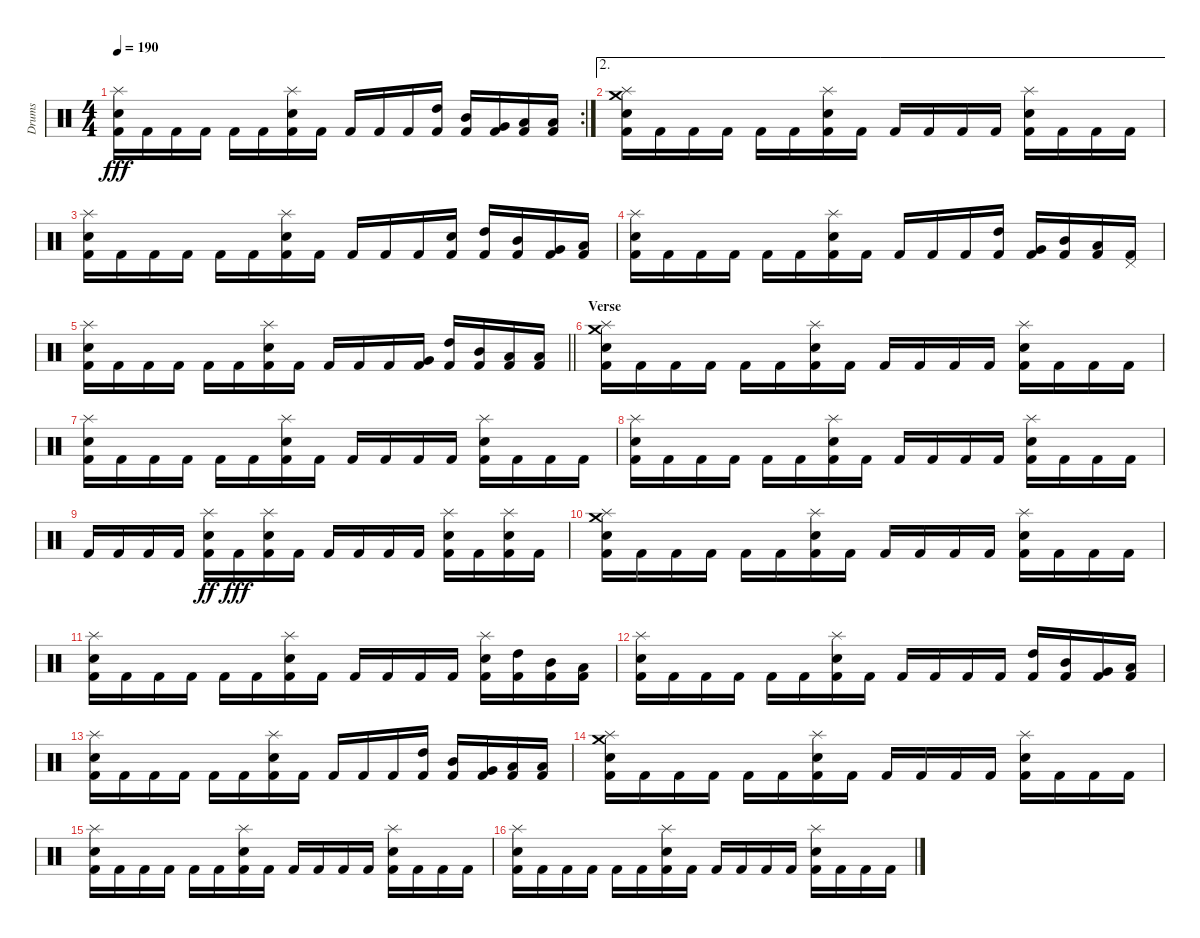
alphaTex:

\track ("Drums" "Drums") {instrument percussion}
\staff {score}
\articulation defaults
\rc 2
\ts (4 4)
\tempo 190
\clef neutral
\ks c
("Splash (hit)" "Electric Snare (hit)" "Kick (hit) 2").16{dy fff} "Kick (hit) 2".16 "Kick (hit) 2".16 "Kick (hit) 2".16 "Kick (hit) 2".16 "Kick (hit) 2".16 ("Splash (hit)" "Electric Snare (hit)" "Kick (hit) 2").16 "Kick (hit) 2".16 "Kick (hit) 2".16 "Kick (hit) 2".16 "Kick (hit) 2".16 ("High Tom (hit)" "Kick (hit) 2").16 ("Mid Tom (hit)" "Kick (hit) 2").16 ("Very Low Tom (hit)" "Kick (hit) 2").16 ("Low Tom (hit)" "Kick (hit) 2").16 ("Low Floor Tom (hit)" "Kick (hit) 2").16 |
\ae 2
("Crash medium (hit)" "Splash (hit)" "Electric Snare (hit)" "Kick (hit) 2").16 "Kick (hit) 2".16 "Kick (hit) 2".16 "Kick (hit) 2".16 "Kick (hit) 2".16 "Kick (hit) 2".16 ("Splash (hit)" "Electric Snare (hit)" "Kick (hit) 2").16 "Kick (hit) 2".16 "Kick (hit) 2".16 "Kick (hit) 2".16 "Kick (hit) 2".16 "Kick (hit) 2".16 ("Splash (hit)" "Electric Snare (hit)" "Kick (hit) 2").16 "Kick (hit) 2".16 "Kick (hit) 2".16 "Kick (hit) 2".16 |
("Splash (hit)" "Electric Snare (hit)" "Kick (hit) 2").16 "Kick (hit) 2".16 "Kick (hit) 2".16 "Kick (hit) 2".16 "Kick (hit) 2".16 "Kick (hit) 2".16 ("Splash (hit)" "Electric Snare (hit)" "Kick (hit) 2").16 "Kick (hit) 2".16 "Kick (hit) 2".16 "Kick (hit) 2".16 "Kick (hit) 2".16 ("Electric Snare (hit)" "Kick (hit) 2").16 ("High Tom (hit)" "Kick (hit) 2").16 ("Mid Tom (hit)" "Kick (hit) 2").16 ("Very Low Tom (hit)" "Kick (hit) 2").16 ("Low Tom (hit)" "Kick (hit) 2").16 |
("Splash (hit)" "Electric Snare (hit)" "Kick (hit) 2").16 "Kick (hit) 2".16 "Kick (hit) 2".16 "Kick (hit) 2".16 "Kick (hit) 2".16 "Kick (hit) 2".16 ("Splash (hit)" "Electric Snare (hit)" "Kick (hit) 2").16 "Kick (hit) 2".16 "Kick (hit) 2".16 "Kick (hit) 2".16 "Kick (hit) 2".16 ("High Tom (hit)" "Kick (hit) 2").16 ("Very Low Tom (hit)" "Kick (hit) 2").16 ("Mid Tom (hit)" "Kick (hit) 2").16 ("Low Tom (hit)" "Kick (hit) 2").16 ("Pedal Hi-Hat (hit)" "Kick (hit) 2").16 |
\barLineRight lightlight
("Splash (hit)" "Electric Snare (hit)" "Kick (hit) 2").16 "Kick (hit) 2".16 "Kick (hit) 2".16 "Kick (hit) 2".16 "Kick (hit) 2".16 "Kick (hit) 2".16 ("Splash (hit)" "Electric Snare (hit)" "Kick (hit) 2").16 "Kick (hit) 2".16 "Kick (hit) 2".16 "Kick (hit) 2".16 "Kick (hit) 2".16 ("Very Low Tom (hit)" "Kick (hit) 2").16 ("High Tom (hit)" "Kick (hit) 2").16 ("Mid Tom (hit)" "Kick (hit) 2").16 ("Low Tom (hit)" "Kick (hit) 2").16 ("Low Floor Tom (hit)" "Kick (hit) 2").16 |
\section ("" "Verse")
("Crash medium (hit)" "Splash (hit)" "Electric Snare (hit)" "Kick (hit) 2").16 "Kick (hit) 2".16 "Kick (hit) 2".16 "Kick (hit) 2".16 "Kick (hit) 2".16 "Kick (hit) 2".16 ("Splash (hit)" "Electric Snare (hit)" "Kick (hit) 2").16 "Kick (hit) 2".16 "Kick (hit) 2".16 "Kick (hit) 2".16 "Kick (hit) 2".16 "Kick (hit) 2".16 ("Splash (hit)" "Electric Snare (hit)" "Kick (hit) 2").16 "Kick (hit) 2".16 "Kick (hit) 2".16 "Kick (hit) 2".16 |
("Splash (hit)" "Electric Snare (hit)" "Kick (hit) 2").16 "Kick (hit) 2".16 "Kick (hit) 2".16 "Kick (hit) 2".16 "Kick (hit) 2".16 "Kick (hit) 2".16 ("Splash (hit)" "Electric Snare (hit)" "Kick (hit) 2").16 "Kick (hit) 2".16 "Kick (hit) 2".16 "Kick (hit) 2".16 "Kick (hit) 2".16 "Kick (hit) 2".16 ("Splash (hit)" "Electric Snare (hit)" "Kick (hit) 2").16 "Kick (hit) 2".16 "Kick (hit) 2".16 "Kick (hit) 2".16 |
("Splash (hit)" "Electric Snare (hit)" "Kick (hit) 2").16 "Kick (hit) 2".16 "Kick (hit) 2".16 "Kick (hit) 2".16 "Kick (hit) 2".16 "Kick (hit) 2".16 ("Splash (hit)" "Electric Snare (hit)" "Kick (hit) 2").16 "Kick (hit) 2".16 "Kick (hit) 2".16 "Kick (hit) 2".16 "Kick (hit) 2".16 "Kick (hit) 2".16 ("Splash (hit)" "Electric Snare (hit)" "Kick (hit) 2").16 "Kick (hit) 2".16 "Kick (hit) 2".16 "Kick (hit) 2".16 |
"Kick (hit) 2".16 "Kick (hit) 2".16 "Kick (hit) 2".16 "Kick (hit) 2".16 ("Splash (hit)" "Electric Snare (hit)" "Kick (hit) 2").16{dy ff} "Kick (hit) 2".16{dy fff} ("Splash (hit)" "Electric Snare (hit)" "Kick (hit) 2").16 "Kick (hit) 2".16 "Kick (hit) 2".16 "Kick (hit) 2".16 "Kick (hit) 2".16 "Kick (hit) 2".16 ("Splash (hit)" "Electric Snare (hit)" "Kick (hit) 2").16 "Kick (hit) 2".16 ("Splash (hit)" "Electric Snare (hit)" "Kick (hit) 2").16 "Kick (hit) 2".16 |
("Crash medium (hit)" "Splash (hit)" "Electric Snare (hit)" "Kick (hit) 2").16 "Kick (hit) 2".16 "Kick (hit) 2".16 "Kick (hit) 2".16 "Kick (hit) 2".16 "Kick (hit) 2".16 ("Splash (hit)" "Electric Snare (hit)" "Kick (hit) 2").16 "Kick (hit) 2".16 "Kick (hit) 2".16 "Kick (hit) 2".16 "Kick (hit) 2".16 "Kick (hit) 2".16 ("Splash (hit)" "Electric Snare (hit)" "Kick (hit) 2").16 "Kick (hit) 2".16 "Kick (hit) 2".16 "Kick (hit) 2".16 |
("Splash (hit)" "Electric Snare (hit)" "Kick (hit) 2").16 "Kick (hit) 2".16 "Kick (hit) 2".16 "Kick (hit) 2".16 "Kick (hit) 2".16 "Kick (hit) 2".16 ("Splash (hit)" "Electric Snare (hit)" "Kick (hit) 2").16 "Kick (hit) 2".16 "Kick (hit) 2".16 "Kick (hit) 2".16 "Kick (hit) 2".16 "Kick (hit) 2".16 ("Splash (hit)" "Electric Snare (hit)" "Kick (hit) 2").16 ("High Tom (hit)" "Kick (hit) 2").16 ("Mid Tom (hit)" "Kick (hit) 2").16 ("Low Tom (hit)" "Kick (hit) 2").16 |
("Splash (hit)" "Electric Snare (hit)" "Kick (hit) 2").16 "Kick (hit) 2".16 "Kick (hit) 2".16 "Kick (hit) 2".16 "Kick (hit) 2".16 "Kick (hit) 2".16 ("Splash (hit)" "Electric Snare (hit)" "Kick (hit) 2").16 "Kick (hit) 2".16 "Kick (hit) 2".16 "Kick (hit) 2".16 "Kick (hit) 2".16 "Kick (hit) 2".16 ("High Tom (hit)" "Kick (hit) 2").16 ("Mid Tom (hit)" "Kick (hit) 2").16 ("Very Low Tom (hit)" "Kick (hit) 2").16 ("Low Tom (hit)" "Kick (hit) 2").16 |
("Splash (hit)" "Electric Snare (hit)" "Kick (hit) 2").16 "Kick (hit) 2".16 "Kick (hit) 2".16 "Kick (hit) 2".16 "Kick (hit) 2".16 "Kick (hit) 2".16 ("Splash (hit)" "Electric Snare (hit)" "Kick (hit) 2").16 "Kick (hit) 2".16 "Kick (hit) 2".16 "Kick (hit) 2".16 "Kick (hit) 2".16 ("High Tom (hit)" "Kick (hit) 2").16 ("Mid Tom (hit)" "Kick (hit) 2").16 ("Very Low Tom (hit)" "Kick (hit) 2").16 ("Low Tom (hit)" "Kick (hit) 2").16 ("Low Floor Tom (hit)" "Kick (hit) 2").16 |
("Crash medium (hit)" "Splash (hit)" "Electric Snare (hit)" "Kick (hit) 2").16 "Kick (hit) 2".16 "Kick (hit) 2".16 "Kick (hit) 2".16 "Kick (hit) 2".16 "Kick (hit) 2".16 ("Splash (hit)" "Electric Snare (hit)" "Kick (hit) 2").16 "Kick (hit) 2".16 "Kick (hit) 2".16 "Kick (hit) 2".16 "Kick (hit) 2".16 "Kick (hit) 2".16 ("Splash (hit)" "Electric Snare (hit)" "Kick (hit) 2").16 "Kick (hit) 2".16 "Kick (hit) 2".16 "Kick (hit) 2".16 |
("Splash (hit)" "Electric Snare (hit)" "Kick (hit) 2").16 "Kick (hit) 2".16 "Kick (hit) 2".16 "Kick (hit) 2".16 "Kick (hit) 2".16 "Kick (hit) 2".16 ("Splash (hit)" "Electric Snare (hit)" "Kick (hit) 2").16 "Kick (hit) 2".16 "Kick (hit) 2".16 "Kick (hit) 2".16 "Kick (hit) 2".16 "Kick (hit) 2".16 ("Splash (hit)" "Electric Snare (hit)" "Kick (hit) 2").16 "Kick (hit) 2".16 "Kick (hit) 2".16 "Kick (hit) 2".16 |
("Splash (hit)" "Electric Snare (hit)" "Kick (hit) 2").16 "Kick (hit) 2".16 "Kick (hit) 2".16 "Kick (hit) 2".16 "Kick (hit) 2".16 "Kick (hit) 2".16 ("Splash (hit)" "Electric Snare (hit)" "Kick (hit) 2").16 "Kick (hit) 2".16 "Kick (hit) 2".16 "Kick (hit) 2".16 "Kick (hit) 2".16 "Kick (hit) 2".16 ("Splash (hit)" "Electric Snare (hit)" "Kick (hit) 2").16 "Kick (hit) 2".16 "Kick (hit) 2".16 "Kick (hit) 2".16
